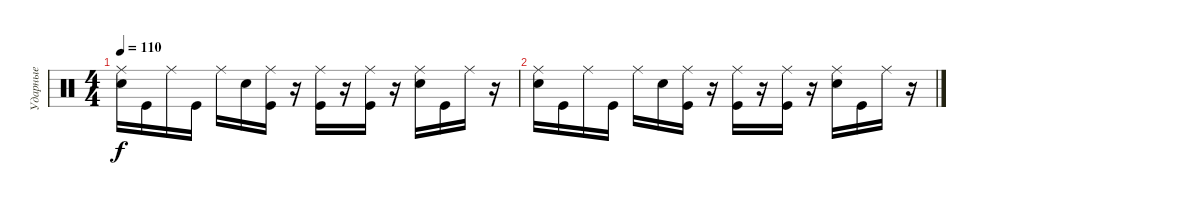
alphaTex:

\track ("Ударные" "Ударные") {instrument percussion}
\staff {score}
\articulation defaults
\ts (4 4)
\tempo 110
\clef neutral
\ks c
("Snare (hit) 2" "Ride (middle)").16{dy f} "Kick (hit)".16 "Ride (middle)".16 "Kick (hit)".16 "Ride (middle)".16 "Snare (hit) 2".16 ("Kick (hit)" "Ride (middle)").16 r.16 ("Kick (hit)" "Ride (middle)").16 r.16 ("Kick (hit)" "Ride (middle)").16 r.16 ("Snare (hit) 2" "Ride (middle)").16 "Kick (hit)".16 "Ride (middle)".16 r.16 |
("Snare (hit) 2" "Ride (middle)").16 "Kick (hit)".16 "Ride (middle)".16 "Kick (hit)".16 "Ride (middle)".16 "Snare (hit) 2".16 ("Kick (hit)" "Ride (middle)").16 r.16 ("Kick (hit)" "Ride (middle)").16 r.16 ("Kick (hit)" "Ride (middle)").16 r.16 ("Snare (hit) 2" "Ride (middle)").16 "Kick (hit)".16 "Ride (middle)".16 r.16
